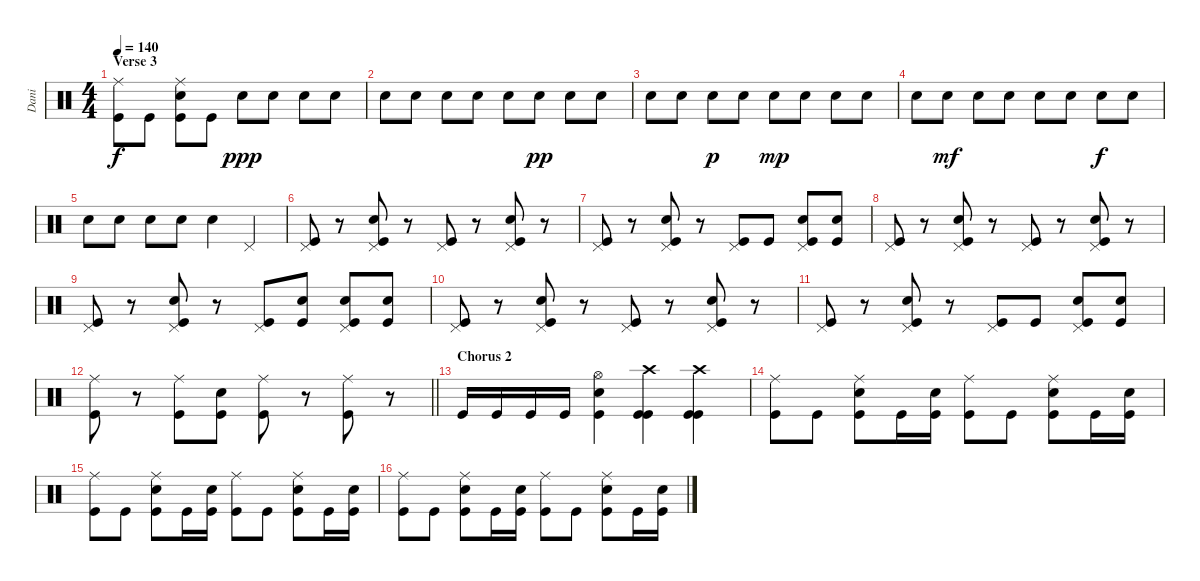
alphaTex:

\track ("Dani" "Dani") {instrument percussion}
\staff {score}
\articulation defaults
\ts (4 4)
\section ("" "Verse 3")
\tempo 140
\clef neutral
\ks c
("Ride (middle)" "Kick (hit)").8{dy f} "Kick (hit)".8 ("Ride (middle)" "Snare (hit) 2" "Kick (hit)").8 "Kick (hit)".8 "Snare (hit) 2".8{dy ppp} "Snare (hit) 2".8 "Snare (hit) 2".8 "Snare (hit) 2".8 |
"Snare (hit) 2".8 "Snare (hit) 2".8 "Snare (hit) 2".8 "Snare (hit) 2".8 "Snare (hit) 2".8 "Snare (hit) 2".8{dy pp} "Snare (hit) 2".8 "Snare (hit) 2".8 |
"Snare (hit) 2".8 "Snare (hit) 2".8 "Snare (hit) 2".8{dy p} "Snare (hit) 2".8 "Snare (hit) 2".8{dy mp} "Snare (hit) 2".8 "Snare (hit) 2".8 "Snare (hit) 2".8 |
"Snare (hit) 2".8 "Snare (hit) 2".8{dy mf} "Snare (hit) 2".8 "Snare (hit) 2".8 "Snare (hit) 2".8 "Snare (hit) 2".8 "Snare (hit) 2".8{dy f} "Snare (hit) 2".8 |
"Snare (hit) 2".8 "Snare (hit) 2".8 "Snare (hit) 2".8 "Snare (hit) 2".8 "Snare (hit) 2".4 "Pedal Hi-Hat (hit)".4 |
("Pedal Hi-Hat (hit)" "Kick (hit)").8 r.8 ("Pedal Hi-Hat (hit)" "Snare (hit) 2" "Kick (hit)").8 r.8 ("Pedal Hi-Hat (hit)" "Kick (hit)").8 r.8 ("Pedal Hi-Hat (hit)" "Snare (hit) 2" "Kick (hit)").8 r.8 |
("Pedal Hi-Hat (hit)" "Kick (hit)").8 r.8 ("Pedal Hi-Hat (hit)" "Snare (hit) 2" "Kick (hit)").8 r.8 ("Pedal Hi-Hat (hit)" "Kick (hit)").8 "Kick (hit)".8 ("Pedal Hi-Hat (hit)" "Snare (hit) 2" "Kick (hit)").8 ("Snare (hit) 2" "Kick (hit)").8 |
("Pedal Hi-Hat (hit)" "Kick (hit)").8 r.8 ("Pedal Hi-Hat (hit)" "Snare (hit) 2" "Kick (hit)").8 r.8 ("Pedal Hi-Hat (hit)" "Kick (hit)").8 r.8 ("Pedal Hi-Hat (hit)" "Snare (hit) 2" "Kick (hit)").8 r.8 |
("Pedal Hi-Hat (hit)" "Kick (hit)").8 r.8 ("Pedal Hi-Hat (hit)" "Snare (hit) 2" "Kick (hit)").8 r.8 ("Pedal Hi-Hat (hit)" "Kick (hit)").8 ("Snare (hit) 2" "Kick (hit)").8 ("Pedal Hi-Hat (hit)" "Snare (hit) 2" "Kick (hit)").8 ("Snare (hit) 2" "Kick (hit)").8 |
("Pedal Hi-Hat (hit)" "Kick (hit)").8 r.8 ("Pedal Hi-Hat (hit)" "Snare (hit) 2" "Kick (hit)").8 r.8 ("Pedal Hi-Hat (hit)" "Kick (hit)").8 r.8 ("Pedal Hi-Hat (hit)" "Snare (hit) 2" "Kick (hit)").8 r.8 |
("Pedal Hi-Hat (hit)" "Kick (hit)").8 r.8 ("Pedal Hi-Hat (hit)" "Snare (hit) 2" "Kick (hit)").8 r.8 ("Pedal Hi-Hat (hit)" "Kick (hit)").8 "Kick (hit)".8 ("Pedal Hi-Hat (hit)" "Snare (hit) 2" "Kick (hit)").8 ("Snare (hit) 2" "Kick (hit)").8 |
\barLineRight lightlight
("Ride (middle)" "Kick (hit)").8 r.8 ("Ride (middle)" "Kick (hit)").8 ("Snare (hit) 2" "Kick (hit)").8 ("Ride (middle)" "Kick (hit)").8 r.8 ("Ride (middle)" "Kick (hit)").8 r.8 |
\section ("" "Chorus 2")
"Kick (hit)".16 "Kick (hit)".16 "Kick (hit)".16 "Kick (hit)".16 ("Hi-Hat (open)" "Snare (hit) 2" "Kick (hit)").4 ("Crash high (hit)" "Kick (hit)" "Kick (hit)").4 ("Crash high (hit)" "Kick (hit)" "Kick (hit)").4 |
("Ride (middle)" "Kick (hit)").8 "Kick (hit)".8 ("Ride (middle)" "Snare (hit) 2" "Kick (hit)").8 "Kick (hit)".16 ("Snare (hit) 2" "Kick (hit)").16 ("Ride (middle)" "Kick (hit)").8 "Kick (hit)".8 ("Ride (middle)" "Snare (hit) 2" "Kick (hit)").8 "Kick (hit)".16 ("Snare (hit) 2" "Kick (hit)").16 |
("Ride (middle)" "Kick (hit)").8 "Kick (hit)".8 ("Ride (middle)" "Snare (hit) 2" "Kick (hit)").8 "Kick (hit)".16 ("Snare (hit) 2" "Kick (hit)").16 ("Ride (middle)" "Kick (hit)").8 "Kick (hit)".8 ("Ride (middle)" "Snare (hit) 2" "Kick (hit)").8 "Kick (hit)".16 ("Snare (hit) 2" "Kick (hit)").16 |
("Ride (middle)" "Kick (hit)").8 "Kick (hit)".8 ("Ride (middle)" "Snare (hit) 2" "Kick (hit)").8 "Kick (hit)".16 ("Snare (hit) 2" "Kick (hit)").16 ("Ride (middle)" "Kick (hit)").8 "Kick (hit)".8 ("Ride (middle)" "Snare (hit) 2" "Kick (hit)").8 "Kick (hit)".16 ("Snare (hit) 2" "Kick (hit)").16
